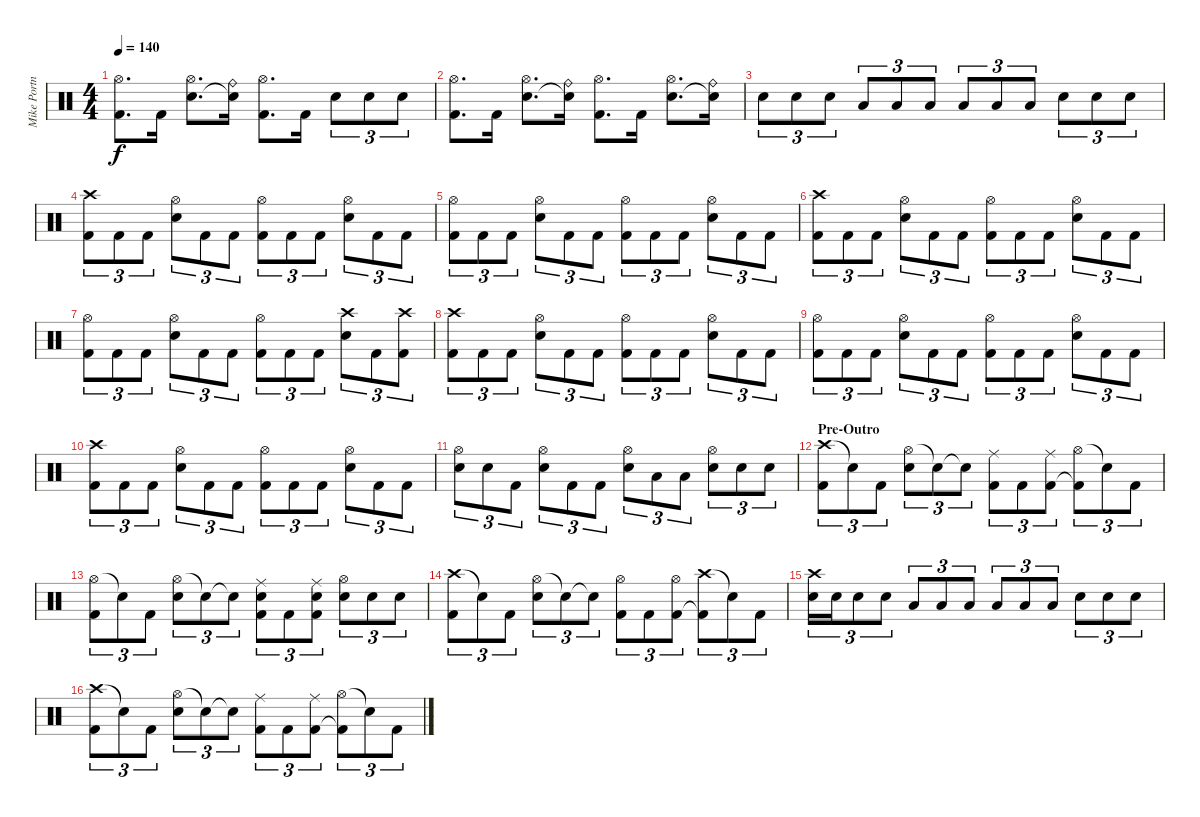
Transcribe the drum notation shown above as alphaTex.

\track ("Mike Portnoy Drums/Percussion" "Mike Portn") {instrument percussion}
\staff {score}
\articulation defaults
\ts (4 4)
\tempo 140
\clef neutral
\ks c
("Hi-Hat (open)" "Kick (hit) 2").8{d dy f} "Kick (hit) 2".16 ("Hi-Hat (open)" "Snare (hit) 2").8{d} ("Ride (bell)" "Snare (hit) 2"{t}).16 ("Hi-Hat (open)" "Kick (hit) 2").8{d} "Kick (hit) 2".16 "Snare (hit) 2".8{tu (3 2)} "Snare (hit) 2".8{tu (3 2)} "Snare (hit) 2".8{tu (3 2)} |
("Hi-Hat (open)" "Kick (hit) 2").8{d} "Kick (hit) 2".16 ("Hi-Hat (open)" "Snare (hit) 2").8{d} ("Ride (bell)" "Snare (hit) 2"{t}).16 ("Hi-Hat (open)" "Kick (hit) 2").8{d} "Kick (hit) 2".16 ("Hi-Hat (open)" "Snare (hit) 2").8{d} ("Ride (bell)" "Snare (hit) 2"{t}).16 |
"Snare (hit) 2".8{tu (3 2)} "Snare (hit) 2".8{tu (3 2)} "Snare (hit) 2".8{tu (3 2)} "Low Tom (hit)".8{tu (3 2)} "Low Tom (hit)".8{tu (3 2)} "Low Tom (hit)".8{tu (3 2)} "Low Floor Tom (hit)".8{tu (3 2)} "Low Floor Tom (hit)".8{tu (3 2)} "Low Floor Tom (hit)".8{tu (3 2)} "Snare (hit) 2".8{tu (3 2)} "Snare (hit) 2".8{tu (3 2)} "Snare (hit) 2".8{tu (3 2)} |
\section ("" "")
("Crash high (hit)" "Kick (hit) 2").8{tu (3 2)} "Kick (hit) 2".8{tu (3 2)} "Kick (hit) 2".8{tu (3 2)} ("Hi-Hat (open)" "Snare (hit) 2").8{tu (3 2)} "Kick (hit) 2".8{tu (3 2)} "Kick (hit) 2".8{tu (3 2)} ("Hi-Hat (open)" "Kick (hit) 2").8{tu (3 2)} "Kick (hit) 2".8{tu (3 2)} "Kick (hit) 2".8{tu (3 2)} ("Hi-Hat (open)" "Snare (hit) 2").8{tu (3 2)} "Kick (hit) 2".8{tu (3 2)} "Kick (hit) 2".8{tu (3 2)} |
("Hi-Hat (open)" "Kick (hit) 2").8{tu (3 2)} "Kick (hit) 2".8{tu (3 2)} "Kick (hit) 2".8{tu (3 2)} ("Hi-Hat (open)" "Snare (hit) 2").8{tu (3 2)} "Kick (hit) 2".8{tu (3 2)} "Kick (hit) 2".8{tu (3 2)} ("Hi-Hat (open)" "Kick (hit) 2").8{tu (3 2)} "Kick (hit) 2".8{tu (3 2)} "Kick (hit) 2".8{tu (3 2)} ("Hi-Hat (open)" "Snare (hit) 2").8{tu (3 2)} "Kick (hit) 2".8{tu (3 2)} "Kick (hit) 2".8{tu (3 2)} |
("Crash high (hit)" "Kick (hit) 2").8{tu (3 2)} "Kick (hit) 2".8{tu (3 2)} "Kick (hit) 2".8{tu (3 2)} ("Hi-Hat (open)" "Snare (hit) 2").8{tu (3 2)} "Kick (hit) 2".8{tu (3 2)} "Kick (hit) 2".8{tu (3 2)} ("Hi-Hat (open)" "Kick (hit) 2").8{tu (3 2)} "Kick (hit) 2".8{tu (3 2)} "Kick (hit) 2".8{tu (3 2)} ("Hi-Hat (open)" "Snare (hit) 2").8{tu (3 2)} "Kick (hit) 2".8{tu (3 2)} "Kick (hit) 2".8{tu (3 2)} |
("Hi-Hat (open)" "Kick (hit) 2").8{tu (3 2)} "Kick (hit) 2".8{tu (3 2)} "Kick (hit) 2".8{tu (3 2)} ("Hi-Hat (open)" "Snare (hit) 2").8{tu (3 2)} "Kick (hit) 2".8{tu (3 2)} "Kick (hit) 2".8{tu (3 2)} ("Hi-Hat (open)" "Kick (hit) 2").8{tu (3 2)} "Kick (hit) 2".8{tu (3 2)} "Kick (hit) 2".8{tu (3 2)} ("Crash high (hit)" "Snare (hit) 2").8{tu (3 2)} "Kick (hit) 2".8{tu (3 2)} ("Crash high (hit)" "Kick (hit) 2").8{tu (3 2)} |
("Crash high (hit)" "Kick (hit) 2").8{tu (3 2)} "Kick (hit) 2".8{tu (3 2)} "Kick (hit) 2".8{tu (3 2)} ("Hi-Hat (open)" "Snare (hit) 2").8{tu (3 2)} "Kick (hit) 2".8{tu (3 2)} "Kick (hit) 2".8{tu (3 2)} ("Hi-Hat (open)" "Kick (hit) 2").8{tu (3 2)} "Kick (hit) 2".8{tu (3 2)} "Kick (hit) 2".8{tu (3 2)} ("Hi-Hat (open)" "Snare (hit) 2").8{tu (3 2)} "Kick (hit) 2".8{tu (3 2)} "Kick (hit) 2".8{tu (3 2)} |
("Hi-Hat (open)" "Kick (hit) 2").8{tu (3 2)} "Kick (hit) 2".8{tu (3 2)} "Kick (hit) 2".8{tu (3 2)} ("Hi-Hat (open)" "Snare (hit) 2").8{tu (3 2)} "Kick (hit) 2".8{tu (3 2)} "Kick (hit) 2".8{tu (3 2)} ("Hi-Hat (open)" "Kick (hit) 2").8{tu (3 2)} "Kick (hit) 2".8{tu (3 2)} "Kick (hit) 2".8{tu (3 2)} ("Hi-Hat (open)" "Snare (hit) 2").8{tu (3 2)} "Kick (hit) 2".8{tu (3 2)} "Kick (hit) 2".8{tu (3 2)} |
("Crash high (hit)" "Kick (hit) 2").8{tu (3 2)} "Kick (hit) 2".8{tu (3 2)} "Kick (hit) 2".8{tu (3 2)} ("Hi-Hat (open)" "Snare (hit) 2").8{tu (3 2)} "Kick (hit) 2".8{tu (3 2)} "Kick (hit) 2".8{tu (3 2)} ("Hi-Hat (open)" "Kick (hit) 2").8{tu (3 2)} "Kick (hit) 2".8{tu (3 2)} "Kick (hit) 2".8{tu (3 2)} ("Hi-Hat (open)" "Snare (hit) 2").8{tu (3 2)} "Kick (hit) 2".8{tu (3 2)} "Kick (hit) 2".8{tu (3 2)} |
("Hi-Hat (open)" "Snare (hit) 2").8{tu (3 2)} "Snare (hit) 2".8{tu (3 2)} "Kick (hit) 2".8{tu (3 2)} ("Hi-Hat (open)" "Snare (hit) 2").8{tu (3 2)} "Kick (hit) 2".8{tu (3 2)} "Kick (hit) 2".8{tu (3 2)} ("Hi-Hat (open)" "Snare (hit) 2").8{tu (3 2)} "Low Tom (hit)".8{tu (3 2)} "Low Floor Tom (hit)".8{tu (3 2)} ("Hi-Hat (open)" "Snare (hit) 2").8{tu (3 2)} "Snare (hit) 2".8{tu (3 2)} "Snare (hit) 2".8{tu (3 2)} |
\section ("" "Pre-Outro")
("Crash high (hit)" "Kick (hit) 2").8{tu (3 2)} "Snare (hit)"{t}.8{tu (3 2)} "Kick (hit) 2".8{tu (3 2)} ("Hi-Hat (open)" "Snare (hit) 2").8{tu (3 2)} "Snare (hit)"{t}.8{tu (3 2)} "Snare (hit)"{t}.8{tu (3 2)} ("Ride (middle)" "Kick (hit) 2").8{tu (3 2)} "Kick (hit) 2".8{tu (3 2)} ("Ride (middle)" "Kick (hit) 2").8{tu (3 2)} ("Hi-Hat (open)" "Kick (hit) 2"{t}).8{tu (3 2)} "Snare (hit)"{t}.8{tu (3 2)} "Kick (hit) 2".8{tu (3 2)} |
("Hi-Hat (open)" "Kick (hit) 2").8{tu (3 2)} "Snare (hit)"{t}.8{tu (3 2)} "Kick (hit) 2".8{tu (3 2)} ("Hi-Hat (open)" "Snare (hit) 2").8{tu (3 2)} "Snare (hit)"{t}.8{tu (3 2)} "Snare (hit)"{t}.8{tu (3 2)} ("Ride (middle)" "Snare (hit) 2" "Kick (hit) 2").8{tu (3 2)} "Kick (hit) 2".8{tu (3 2)} ("Ride (middle)" "Snare (hit) 2" "Kick (hit) 2").8{tu (3 2)} ("Hi-Hat (open)" "Snare (hit) 2").8{tu (3 2)} "Snare (hit) 2".8{tu (3 2)} "Snare (hit) 2".8{tu (3 2)} |
("Crash high (hit)" "Kick (hit) 2").8{tu (3 2)} "Snare (hit)"{t}.8{tu (3 2)} "Kick (hit) 2".8{tu (3 2)} ("Hi-Hat (open)" "Snare (hit) 2").8{tu (3 2)} "Snare (hit)"{t}.8{tu (3 2)} "Snare (hit)"{t}.8{tu (3 2)} ("Hi-Hat (open)" "Kick (hit) 2").8{tu (3 2)} "Kick (hit) 2".8{tu (3 2)} ("Hi-Hat (open)" "Kick (hit) 2").8{tu (3 2)} ("Crash high (hit)" "Kick (hit) 2"{t}).8{tu (3 2)} "Snare (hit)"{t}.8{tu (3 2)} "Kick (hit) 2".8{tu (3 2)} |
("Crash high (hit)" "Snare (hit) 2").16{tu (3 2)} "Snare (hit) 2".16{tu (3 2)} "Snare (hit) 2".8{tu (3 2)} "Snare (hit) 2".8{tu (3 2)} "Low Tom (hit)".8{tu (3 2)} "Low Tom (hit)".8{tu (3 2)} "Low Tom (hit)".8{tu (3 2)} "Low Floor Tom (hit)".8{tu (3 2)} "Low Floor Tom (hit)".8{tu (3 2)} "Low Floor Tom (hit)".8{tu (3 2)} "Snare (hit) 2".8{tu (3 2)} "Snare (hit) 2".8{tu (3 2)} "Snare (hit) 2".8{tu (3 2)} |
("Crash high (hit)" "Kick (hit) 2").8{tu (3 2)} "Snare (hit)"{t}.8{tu (3 2)} "Kick (hit) 2".8{tu (3 2)} ("Hi-Hat (open)" "Snare (hit) 2").8{tu (3 2)} "Snare (hit)"{t}.8{tu (3 2)} "Snare (hit)"{t}.8{tu (3 2)} ("Ride (middle)" "Kick (hit) 2").8{tu (3 2)} "Kick (hit) 2".8{tu (3 2)} ("Ride (middle)" "Kick (hit) 2").8{tu (3 2)} ("Hi-Hat (open)" "Kick (hit) 2"{t}).8{tu (3 2)} "Snare (hit)"{t}.8{tu (3 2)} "Kick (hit) 2".8{tu (3 2)}
